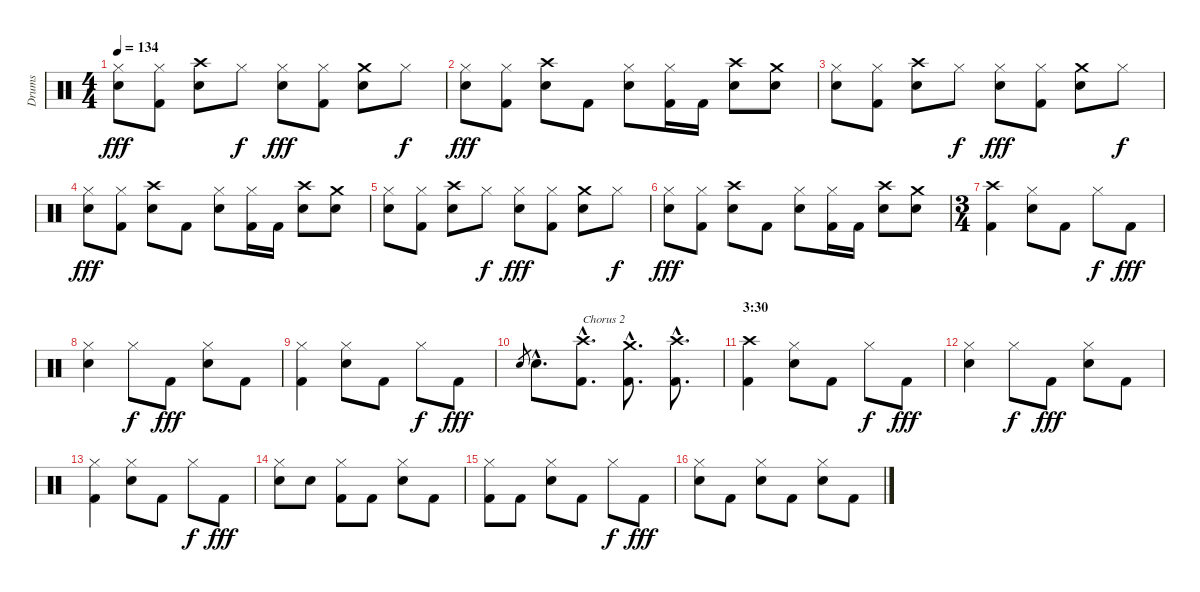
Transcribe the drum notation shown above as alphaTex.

\track ("Drums" "Drums") {instrument percussion}
\staff {score}
\articulation defaults
\ts (4 4)
\tempo 134
\clef neutral
\ks c
("Hi-Hat (closed)" "Snare (hit) 2").8{dy fff} ("Hi-Hat (closed)" "Kick (hit) 2").8 ("Snare (hit) 2" "Crash high (hit)").8 "Hi-Hat (closed)".8{dy f} ("Hi-Hat (closed)" "Snare (hit) 2").8{dy fff} ("Hi-Hat (closed)" "Kick (hit) 2").8 ("Snare (hit) 2" "Crash medium (hit)").8 "Hi-Hat (closed)".8{dy f} |
("Hi-Hat (closed)" "Snare (hit) 2").8{dy fff} ("Hi-Hat (closed)" "Kick (hit) 2").8 ("Snare (hit) 2" "Crash high (hit)").8 "Kick (hit) 2".8 ("Hi-Hat (closed)" "Snare (hit) 2").8 ("Hi-Hat (closed)" "Kick (hit) 2").16 "Kick (hit) 2".16 ("Snare (hit) 2" "Crash high (hit)").8 ("Snare (hit) 2" "Crash medium (hit)").8 |
("Hi-Hat (closed)" "Snare (hit) 2").8 ("Hi-Hat (closed)" "Kick (hit) 2").8 ("Snare (hit) 2" "Crash high (hit)").8 "Hi-Hat (closed)".8{dy f} ("Hi-Hat (closed)" "Snare (hit) 2").8{dy fff} ("Hi-Hat (closed)" "Kick (hit) 2").8 ("Snare (hit) 2" "Crash medium (hit)").8 "Hi-Hat (closed)".8{dy f} |
("Hi-Hat (closed)" "Snare (hit) 2").8{dy fff} ("Hi-Hat (closed)" "Kick (hit) 2").8 ("Snare (hit) 2" "Crash high (hit)").8 "Kick (hit) 2".8 ("Hi-Hat (closed)" "Snare (hit) 2").8 ("Hi-Hat (closed)" "Kick (hit) 2").16 "Kick (hit) 2".16 ("Snare (hit) 2" "Crash high (hit)").8 ("Snare (hit) 2" "Crash medium (hit)").8 |
("Hi-Hat (closed)" "Snare (hit) 2").8 ("Hi-Hat (closed)" "Kick (hit) 2").8 ("Snare (hit) 2" "Crash high (hit)").8 "Hi-Hat (closed)".8{dy f} ("Hi-Hat (closed)" "Snare (hit) 2").8{dy fff} ("Hi-Hat (closed)" "Kick (hit) 2").8 ("Snare (hit) 2" "Crash medium (hit)").8 "Hi-Hat (closed)".8{dy f} |
("Hi-Hat (closed)" "Snare (hit) 2").8{dy fff} ("Hi-Hat (closed)" "Kick (hit) 2").8 ("Snare (hit) 2" "Crash high (hit)").8 "Kick (hit) 2".8 ("Hi-Hat (closed)" "Snare (hit) 2").8 ("Hi-Hat (closed)" "Kick (hit) 2").16 "Kick (hit) 2".16 ("Snare (hit) 2" "Crash high (hit)").8 ("Snare (hit) 2" "Crash medium (hit)").8 |
\ts (3 4)
("Kick (hit) 2" "Crash high (hit)").4 ("Hi-Hat (closed)" "Snare (hit) 2").8 "Kick (hit) 2".8 "Hi-Hat (closed)".8{dy f} "Kick (hit) 2".8{dy fff} |
("Hi-Hat (closed)" "Snare (hit) 2").4 "Hi-Hat (closed)".8{dy f} "Kick (hit) 2".8{dy fff} ("Hi-Hat (closed)" "Snare (hit) 2").8 "Kick (hit) 2".8 |
("Hi-Hat (closed)" "Kick (hit) 2").4 ("Hi-Hat (closed)" "Snare (hit) 2").8 "Kick (hit) 2".8 "Hi-Hat (closed)".8{dy f} "Kick (hit) 2".8{dy fff} |
"Snare (hit) 2".8{gr} "Snare (hit) 2"{hac}.8{d} ("Kick (hit) 2"{hac} "Crash high (hit)"{hac}).8{d txt "Chorus 2"} ("Crash medium (hit)"{hac} "Kick (hit) 2"{hac}).8{d} ("Kick (hit) 2"{hac} "Crash high (hit)"{hac}).8{d} |
\section ("" "3:30")
("Kick (hit) 2" "Crash high (hit)").4 ("Hi-Hat (closed)" "Snare (hit) 2").8 "Kick (hit) 2".8 "Hi-Hat (closed)".8{dy f} "Kick (hit) 2".8{dy fff} |
("Hi-Hat (closed)" "Snare (hit) 2").4 "Hi-Hat (closed)".8{dy f} "Kick (hit) 2".8{dy fff} ("Hi-Hat (closed)" "Snare (hit) 2").8 "Kick (hit) 2".8 |
("Hi-Hat (closed)" "Kick (hit) 2").4 ("Hi-Hat (closed)" "Snare (hit) 2").8 "Kick (hit) 2".8 "Hi-Hat (closed)".8{dy f} "Kick (hit) 2".8{dy fff} |
("Hi-Hat (closed)" "Snare (hit) 2").8 "Snare (hit) 2".8 ("Hi-Hat (closed)" "Kick (hit) 2").8 "Kick (hit) 2".8 ("Hi-Hat (closed)" "Snare (hit) 2").8 "Kick (hit) 2".8 |
("Hi-Hat (closed)" "Kick (hit) 2").8 "Kick (hit) 2".8 ("Hi-Hat (closed)" "Snare (hit) 2").8 "Kick (hit) 2".8 "Hi-Hat (closed)".8{dy f} "Kick (hit) 2".8{dy fff} |
("Hi-Hat (closed)" "Snare (hit) 2").8 "Kick (hit) 2".8 ("Hi-Hat (closed)" "Snare (hit) 2").8 "Kick (hit) 2".8 ("Hi-Hat (closed)" "Snare (hit) 2").8 "Kick (hit) 2".8
